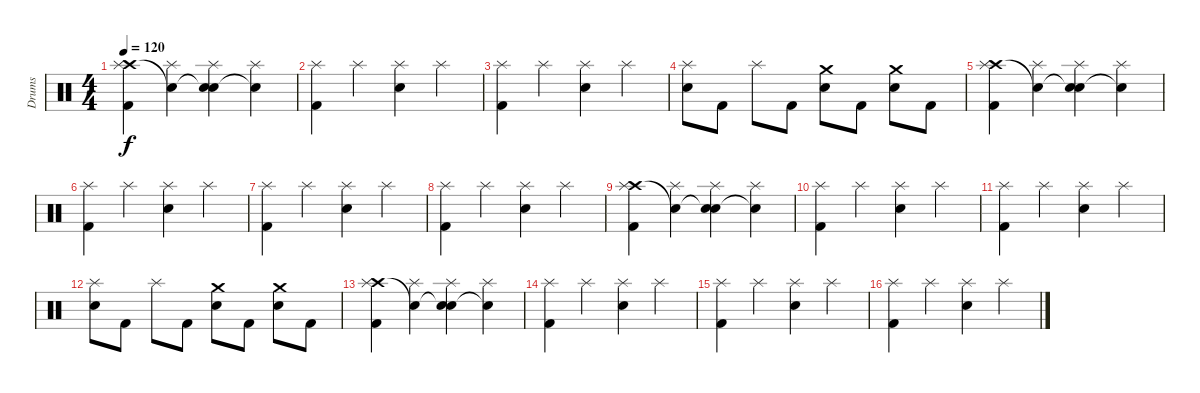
\track ("Drums" "Drums") {instrument percussion}
\staff {score}
\articulation defaults
\ts (4 4)
\tempo 120
\clef neutral
\ks c
("Crash high (hit)" "Splash (hit)" "Kick (hit) 2").4{dy f} ("Snare (hit)"{t} "Splash (hit)").4 ("Snare (hit)"{t} "Splash (hit)" "Snare (hit) 2").4 ("Snare (hit)"{t} "Splash (hit)").4 |
("Splash (hit)" "Kick (hit) 2").4 "Splash (hit)".4 ("Splash (hit)" "Snare (hit) 2").4 "Splash (hit)".4 |
("Splash (hit)" "Kick (hit) 2").4 "Splash (hit)".4 ("Splash (hit)" "Snare (hit) 2").4 "Splash (hit)".4 |
("Splash (hit)" "Snare (hit) 2").8 "Kick (hit) 2".8 "Splash (hit)".8 "Kick (hit) 2".8 ("Crash medium (hit)" "Snare (hit) 2").8 "Kick (hit) 2".8 ("Crash medium (hit)" "Snare (hit) 2").8 "Kick (hit) 2".8 |
("Crash high (hit)" "Splash (hit)" "Kick (hit) 2").4 ("Snare (hit)"{t} "Splash (hit)").4 ("Snare (hit)"{t} "Splash (hit)" "Snare (hit) 2").4 ("Snare (hit)"{t} "Splash (hit)").4 |
("Splash (hit)" "Kick (hit) 2").4 "Splash (hit)".4 ("Splash (hit)" "Snare (hit) 2").4 "Splash (hit)".4 |
("Splash (hit)" "Kick (hit) 2").4 "Splash (hit)".4 ("Splash (hit)" "Snare (hit) 2").4 "Splash (hit)".4 |
("Splash (hit)" "Kick (hit) 2").4 "Splash (hit)".4 ("Splash (hit)" "Snare (hit) 2").4 "Splash (hit)".4 |
("Crash high (hit)" "Splash (hit)" "Kick (hit) 2").4 ("Snare (hit)"{t} "Splash (hit)").4 ("Snare (hit)"{t} "Splash (hit)" "Snare (hit) 2").4 ("Snare (hit)"{t} "Splash (hit)").4 |
("Splash (hit)" "Kick (hit) 2").4 "Splash (hit)".4 ("Splash (hit)" "Snare (hit) 2").4 "Splash (hit)".4 |
("Splash (hit)" "Kick (hit) 2").4 "Splash (hit)".4 ("Splash (hit)" "Snare (hit) 2").4 "Splash (hit)".4 |
("Splash (hit)" "Snare (hit) 2").8 "Kick (hit) 2".8 "Splash (hit)".8 "Kick (hit) 2".8 ("Crash medium (hit)" "Snare (hit) 2").8 "Kick (hit) 2".8 ("Crash medium (hit)" "Snare (hit) 2").8 "Kick (hit) 2".8 |
("Crash high (hit)" "Splash (hit)" "Kick (hit) 2").4 ("Snare (hit)"{t} "Splash (hit)").4 ("Snare (hit)"{t} "Splash (hit)" "Snare (hit) 2").4 ("Snare (hit)"{t} "Splash (hit)").4 |
("Splash (hit)" "Kick (hit) 2").4 "Splash (hit)".4 ("Splash (hit)" "Snare (hit) 2").4 "Splash (hit)".4 |
("Splash (hit)" "Kick (hit) 2").4 "Splash (hit)".4 ("Splash (hit)" "Snare (hit) 2").4 "Splash (hit)".4 |
("Splash (hit)" "Kick (hit) 2").4 "Splash (hit)".4 ("Splash (hit)" "Snare (hit) 2").4 "Splash (hit)".4
